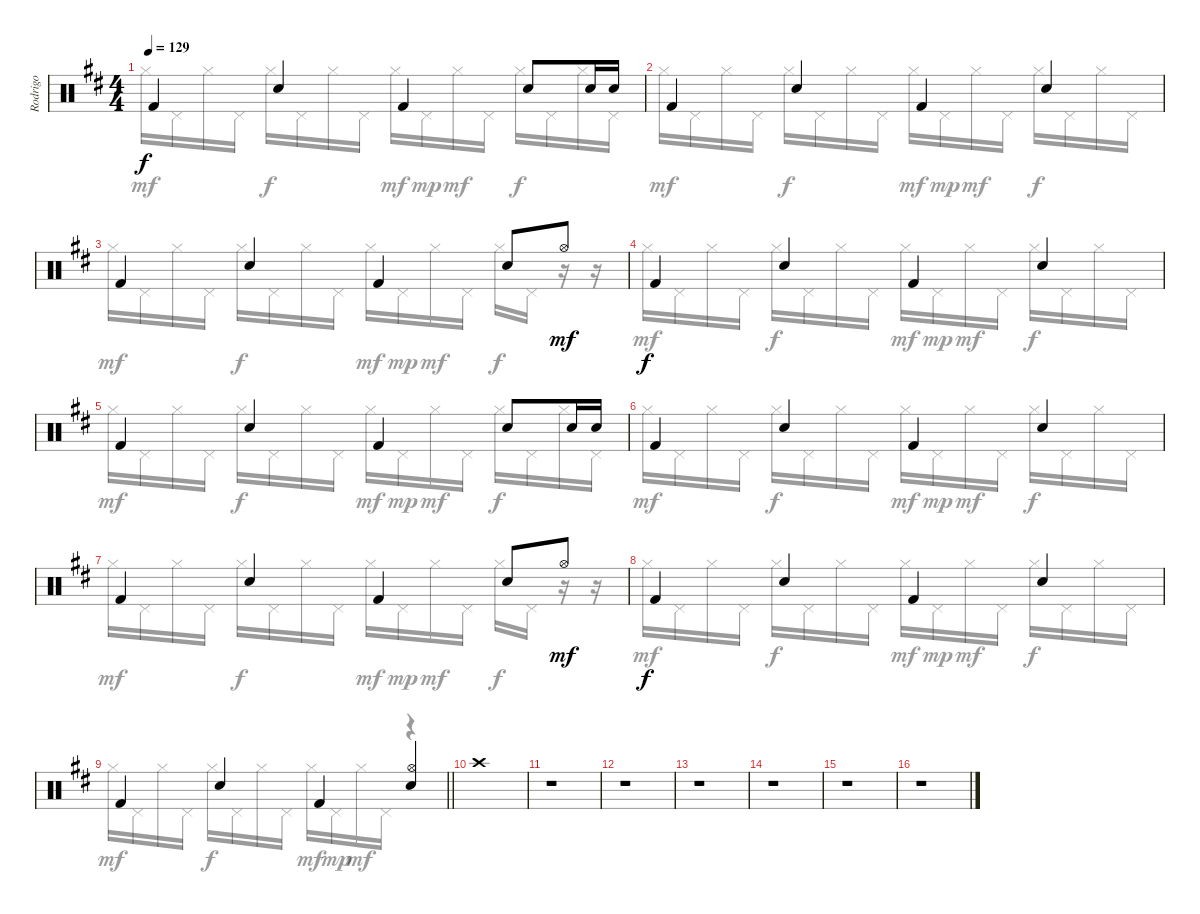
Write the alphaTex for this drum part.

\track ("Rodrigo " "Rodrigo ") {instrument percussion}
\staff {score}
\articulation defaults
\voice
\ts (4 4)
\tempo 129
\clef neutral
\ks d "Kick (hit) 2".4{dy f} "Electric Snare (hit)".4 "Kick (hit) 2".4 "Electric Snare (hit)".8 "Electric Snare (hit)".16 "Electric Snare (hit)".16
|
"Kick (hit) 2".4 "Electric Snare (hit)".4 "Kick (hit) 2".4 "Electric Snare (hit)".4 |
"Kick (hit) 2".4 "Electric Snare (hit)".4 "Kick (hit) 2".4 "Electric Snare (hit)".8 "Hi-Hat (open)".8{dy mf} |
"Kick (hit) 2".4{dy f} "Electric Snare (hit)".4 "Kick (hit) 2".4 "Electric Snare (hit)".4 |
"Kick (hit) 2".4 "Electric Snare (hit)".4 "Kick (hit) 2".4 "Electric Snare (hit)".8 "Electric Snare (hit)".16 "Electric Snare (hit)".16 |
"Kick (hit) 2".4 "Electric Snare (hit)".4 "Kick (hit) 2".4 "Electric Snare (hit)".4 |
"Kick (hit) 2".4 "Electric Snare (hit)".4 "Kick (hit) 2".4 "Electric Snare (hit)".8 "Hi-Hat (open)".8{dy mf} |
"Kick (hit) 2".4{dy f} "Electric Snare (hit)".4 "Kick (hit) 2".4 "Electric Snare (hit)".4 |
\barLineRight lightlight "Kick (hit) 2".4 "Electric Snare (hit)".4 "Kick (hit) 2".4
("Hi-Hat (open)" "Electric Snare (hit)").4 |
"Crash high (hit)".1 |
r.1 |
r.1 |
r.1 |
r.1 |
r.1 |
r.1
\voice
\clef neutral
\ottava regular
\simile none
\ks d "Hi-Hat (closed)".16{dy mf} "Pedal Hi-Hat (hit)".16 "Hi-Hat (closed)".16 "Pedal Hi-Hat (hit)".16 "Hi-Hat (closed)".16{dy f} "Pedal Hi-Hat (hit)".16 "Hi-Hat (closed)".16 "Pedal Hi-Hat (hit)".16 "Hi-Hat (closed)".16{dy mf} "Pedal Hi-Hat (hit)".16{dy mp} "Hi-Hat (closed)".16{dy mf} "Pedal Hi-Hat (hit)".16 "Hi-Hat (closed)".16{dy f} "Pedal Hi-Hat (hit)".16 "Hi-Hat (closed)".16 "Pedal Hi-Hat (hit)".16
|
"Hi-Hat (closed)".16{dy mf} "Pedal Hi-Hat (hit)".16 "Hi-Hat (closed)".16 "Pedal Hi-Hat (hit)".16 "Hi-Hat (closed)".16{dy f} "Pedal Hi-Hat (hit)".16 "Hi-Hat (closed)".16 "Pedal Hi-Hat (hit)".16 "Hi-Hat (closed)".16{dy mf} "Pedal Hi-Hat (hit)".16{dy mp} "Hi-Hat (closed)".16{dy mf} "Pedal Hi-Hat (hit)".16 "Hi-Hat (closed)".16{dy f} "Pedal Hi-Hat (hit)".16 "Hi-Hat (closed)".16 "Pedal Hi-Hat (hit)".16 |
"Hi-Hat (closed)".16{dy mf} "Pedal Hi-Hat (hit)".16 "Hi-Hat (closed)".16 "Pedal Hi-Hat (hit)".16 "Hi-Hat (closed)".16{dy f} "Pedal Hi-Hat (hit)".16 "Hi-Hat (closed)".16 "Pedal Hi-Hat (hit)".16 "Hi-Hat (closed)".16{dy mf} "Pedal Hi-Hat (hit)".16{dy mp} "Hi-Hat (closed)".16{dy mf} "Pedal Hi-Hat (hit)".16 "Hi-Hat (closed)".16{dy f} "Pedal Hi-Hat (hit)".16 r.16 r.16 |
"Hi-Hat (closed)".16{dy mf} "Pedal Hi-Hat (hit)".16 "Hi-Hat (closed)".16 "Pedal Hi-Hat (hit)".16 "Hi-Hat (closed)".16{dy f} "Pedal Hi-Hat (hit)".16 "Hi-Hat (closed)".16 "Pedal Hi-Hat (hit)".16 "Hi-Hat (closed)".16{dy mf} "Pedal Hi-Hat (hit)".16{dy mp} "Hi-Hat (closed)".16{dy mf} "Pedal Hi-Hat (hit)".16 "Hi-Hat (closed)".16{dy f} "Pedal Hi-Hat (hit)".16 "Hi-Hat (closed)".16 "Pedal Hi-Hat (hit)".16 |
"Hi-Hat (closed)".16{dy mf} "Pedal Hi-Hat (hit)".16 "Hi-Hat (closed)".16 "Pedal Hi-Hat (hit)".16 "Hi-Hat (closed)".16{dy f} "Pedal Hi-Hat (hit)".16 "Hi-Hat (closed)".16 "Pedal Hi-Hat (hit)".16 "Hi-Hat (closed)".16{dy mf} "Pedal Hi-Hat (hit)".16{dy mp} "Hi-Hat (closed)".16{dy mf} "Pedal Hi-Hat (hit)".16 "Hi-Hat (closed)".16{dy f} "Pedal Hi-Hat (hit)".16 "Hi-Hat (closed)".16 "Pedal Hi-Hat (hit)".16 |
"Hi-Hat (closed)".16{dy mf} "Pedal Hi-Hat (hit)".16 "Hi-Hat (closed)".16 "Pedal Hi-Hat (hit)".16 "Hi-Hat (closed)".16{dy f} "Pedal Hi-Hat (hit)".16 "Hi-Hat (closed)".16 "Pedal Hi-Hat (hit)".16 "Hi-Hat (closed)".16{dy mf} "Pedal Hi-Hat (hit)".16{dy mp} "Hi-Hat (closed)".16{dy mf} "Pedal Hi-Hat (hit)".16 "Hi-Hat (closed)".16{dy f} "Pedal Hi-Hat (hit)".16 "Hi-Hat (closed)".16 "Pedal Hi-Hat (hit)".16 |
"Hi-Hat (closed)".16{dy mf} "Pedal Hi-Hat (hit)".16 "Hi-Hat (closed)".16 "Pedal Hi-Hat (hit)".16 "Hi-Hat (closed)".16{dy f} "Pedal Hi-Hat (hit)".16 "Hi-Hat (closed)".16 "Pedal Hi-Hat (hit)".16 "Hi-Hat (closed)".16{dy mf} "Pedal Hi-Hat (hit)".16{dy mp} "Hi-Hat (closed)".16{dy mf} "Pedal Hi-Hat (hit)".16 "Hi-Hat (closed)".16{dy f} "Pedal Hi-Hat (hit)".16 r.16 r.16 |
"Hi-Hat (closed)".16{dy mf} "Pedal Hi-Hat (hit)".16 "Hi-Hat (closed)".16 "Pedal Hi-Hat (hit)".16 "Hi-Hat (closed)".16{dy f} "Pedal Hi-Hat (hit)".16 "Hi-Hat (closed)".16 "Pedal Hi-Hat (hit)".16 "Hi-Hat (closed)".16{dy mf} "Pedal Hi-Hat (hit)".16{dy mp} "Hi-Hat (closed)".16{dy mf} "Pedal Hi-Hat (hit)".16 "Hi-Hat (closed)".16{dy f} "Pedal Hi-Hat (hit)".16 "Hi-Hat (closed)".16 "Pedal Hi-Hat (hit)".16 |
\barLineRight lightlight "Hi-Hat (closed)".16{dy mf} "Pedal Hi-Hat (hit)".16 "Hi-Hat (closed)".16 "Pedal Hi-Hat (hit)".16 "Hi-Hat (closed)".16{dy f} "Pedal Hi-Hat (hit)".16 "Hi-Hat (closed)".16 "Pedal Hi-Hat (hit)".16 "Hi-Hat (closed)".16{dy mf} "Pedal Hi-Hat (hit)".16{dy mp} "Hi-Hat (closed)".16{dy mf} "Pedal Hi-Hat (hit)".16
r.4 |
|
|
|
|
|
|
